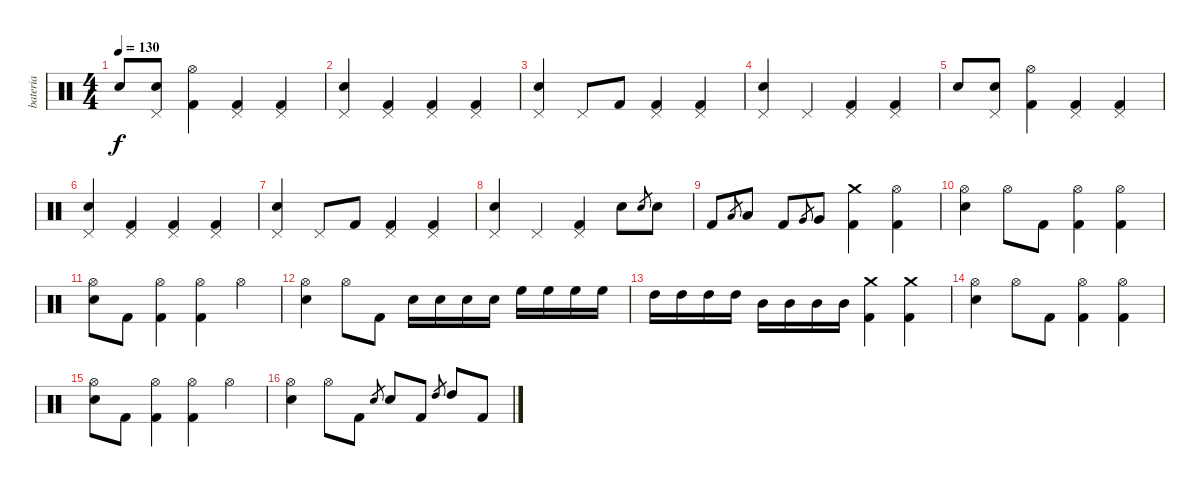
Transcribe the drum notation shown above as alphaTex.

\track ("bateria" "bateria") {instrument percussion}
\staff {score}
\articulation defaults
\ts (4 4)
\tempo 130
\clef neutral
\ks c "Snare (hit) 2".8{dy f}
("Pedal Hi-Hat (hit)" "Snare (hit) 2").8 ("Hi-Hat (open)" "Kick (hit) 2").4 ("Pedal Hi-Hat (hit)" "Kick (hit) 2").4 ("Pedal Hi-Hat (hit)" "Kick (hit) 2").4 |
("Pedal Hi-Hat (hit)" "Snare (hit) 2").4 ("Pedal Hi-Hat (hit)" "Kick (hit) 2").4 ("Pedal Hi-Hat (hit)" "Kick (hit) 2").4 ("Pedal Hi-Hat (hit)" "Kick (hit) 2").4 |
("Pedal Hi-Hat (hit)" "Snare (hit) 2").4 "Pedal Hi-Hat (hit)".8 "Kick (hit) 2".8 ("Pedal Hi-Hat (hit)" "Kick (hit) 2").4 ("Pedal Hi-Hat (hit)" "Kick (hit) 2").4 |
("Pedal Hi-Hat (hit)" "Snare (hit) 2").4 "Pedal Hi-Hat (hit)".4 ("Pedal Hi-Hat (hit)" "Kick (hit) 2").4 ("Pedal Hi-Hat (hit)" "Kick (hit) 2").4 |
"Snare (hit) 2".8 ("Pedal Hi-Hat (hit)" "Snare (hit) 2").8 ("Hi-Hat (open)" "Kick (hit) 2").4 ("Pedal Hi-Hat (hit)" "Kick (hit) 2").4 ("Pedal Hi-Hat (hit)" "Kick (hit) 2").4 |
("Pedal Hi-Hat (hit)" "Snare (hit) 2").4 ("Pedal Hi-Hat (hit)" "Kick (hit) 2").4 ("Pedal Hi-Hat (hit)" "Kick (hit) 2").4 ("Pedal Hi-Hat (hit)" "Kick (hit) 2").4 |
("Pedal Hi-Hat (hit)" "Snare (hit) 2").4 "Pedal Hi-Hat (hit)".8 "Kick (hit) 2".8 ("Pedal Hi-Hat (hit)" "Kick (hit) 2").4 ("Pedal Hi-Hat (hit)" "Kick (hit) 2").4 |
("Pedal Hi-Hat (hit)" "Snare (hit) 2").4 "Pedal Hi-Hat (hit)".4 ("Pedal Hi-Hat (hit)" "Kick (hit) 2").4 "Snare (hit) 2".8 "Snare (hit) 2".8{gr} "Snare (hit) 2".8 |
"Kick (hit) 2".8 "Low Tom (hit)".8{gr} "Low Tom (hit)".8 "Kick (hit) 2".8 "Very Low Tom (hit)".8{gr} "Very Low Tom (hit)".8 ("Crash medium (hit)" "Kick (hit) 2").4 ("Hi-Hat (open)" "Kick (hit) 2").4 |
("Hi-Hat (open)" "Snare (hit) 2").4 "Hi-Hat (open)".8 "Kick (hit) 2".8 ("Hi-Hat (open)" "Kick (hit) 2").4 ("Hi-Hat (open)" "Kick (hit) 2").4 |
("Hi-Hat (open)" "Snare (hit) 2").8 "Kick (hit) 2".8 ("Hi-Hat (open)" "Kick (hit) 2").4 ("Hi-Hat (open)" "Kick (hit) 2").4 "Hi-Hat (open)".4 |
("Hi-Hat (open)" "Snare (hit) 2").4 "Hi-Hat (open)".8 "Kick (hit) 2".8 "Snare (hit) 2".16 "Snare (hit) 2".16 "Snare (hit) 2".16 "Snare (hit) 2".16 "High Floor Tom (hit)".16 "High Floor Tom (hit)".16 "High Floor Tom (hit)".16 "High Floor Tom (hit)".16 |
"High Tom (hit)".16 "High Tom (hit)".16 "High Tom (hit)".16 "High Tom (hit)".16 "Mid Tom (hit)".16 "Mid Tom (hit)".16 "Mid Tom (hit)".16 "Mid Tom (hit)".16 ("Crash medium (hit)" "Kick (hit) 2").4 ("Crash medium (hit)" "Kick (hit) 2").4 |
("Hi-Hat (open)" "Snare (hit) 2").4 "Hi-Hat (open)".8 "Kick (hit) 2".8 ("Hi-Hat (open)" "Kick (hit) 2").4 ("Hi-Hat (open)" "Kick (hit) 2").4 |
("Hi-Hat (open)" "Snare (hit) 2").8 "Kick (hit) 2".8 ("Hi-Hat (open)" "Kick (hit) 2").4 ("Hi-Hat (open)" "Kick (hit) 2").4 "Hi-Hat (open)".4 |
("Hi-Hat (open)" "Snare (hit) 2").4 "Hi-Hat (open)".8 "Kick (hit) 2".8 "Snare (hit) 2".8{gr} "Snare (hit) 2".8 "Kick (hit) 2".8 "High Tom (hit)".8{gr} "High Tom (hit)".8 "Kick (hit) 2".8
